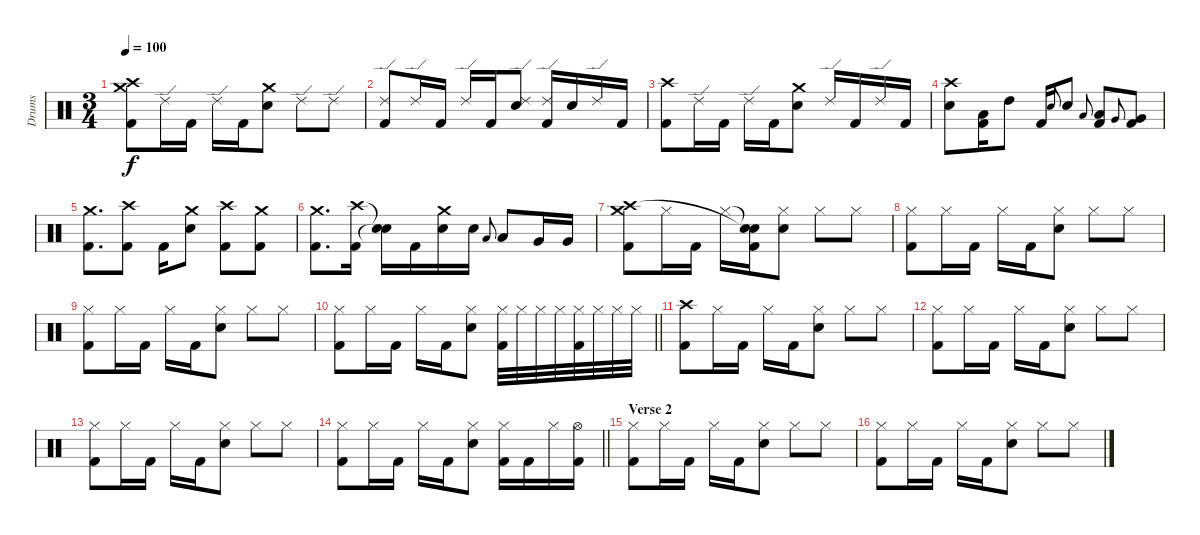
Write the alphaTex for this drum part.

\track ("Drums" "Drums") {instrument percussion}
\staff {score}
\articulation defaults
\ts (3 4)
\tempo 100
\clef neutral
\ks c
("Crash high (hit)" "Crash medium (hit)" "Kick (hit) 2").8{dy f} "Ride (edge) 2".16 "Kick (hit) 2".16 "Ride (edge) 2".16 "Kick (hit) 2".16 ("Crash medium (hit)" "Electric Snare (hit)").8 "Ride (edge) 2".8 "Ride (edge) 2".8 |
("Ride (edge) 2" "Kick (hit) 2").8 "Ride (edge) 2".16 "Kick (hit) 2".16 "Ride (edge) 2".16 "Kick (hit) 2".16 ("Ride (edge) 2" "Electric Snare (hit)").8 ("Ride (edge) 2" "Kick (hit) 2").16 "Electric Snare (hit)".16 "Ride (edge) 2".16 "Kick (hit) 2".16 |
("Crash high (hit)" "Kick (hit) 2").8 "Ride (edge) 2".16 "Kick (hit) 2".16 "Ride (edge) 2".16 "Kick (hit) 2".16 ("Crash medium (hit)" "Electric Snare (hit)").8 "Ride (edge) 2".16 "Kick (hit) 2".16 "Ride (edge) 2".16 "Kick (hit) 2".16 |
("Crash high (hit)" "Electric Snare (hit)").8 ("Low Tom (hit)" "Kick (hit) 2").16 "High Tom (hit)".8 "Kick (hit) 2".16 "Electric Snare (hit)".8{gr onbeat} "Electric Snare (hit)".8 "Low Tom (hit)".8{gr onbeat} ("Low Tom (hit)" "Kick (hit) 2").8 "Very Low Tom (hit)".8{gr onbeat} ("Very Low Tom (hit)" "Kick (hit) 2").8 |
("Crash medium (hit)" "Kick (hit) 2").8{d} ("Crash high (hit)" "Kick (hit) 2").8 "Kick (hit) 2".16 ("Crash medium (hit)" "Electric Snare (hit)").8 ("Crash high (hit)" "Kick (hit) 2").8 ("Crash medium (hit)" "Kick (hit) 2").8 |
("Crash medium (hit)" "Kick (hit) 2").8{d} ("Crash high (hit)" "Kick (hit) 2").16 ("Snare (hit)"{t} "Snare (hit)"{t}).16 "Kick (hit) 2".16 ("Crash medium (hit)" "Electric Snare (hit)").16 "Electric Snare (hit)".16 "Low Tom (hit)".8{gr onbeat} "Low Tom (hit)".8 "Very Low Tom (hit)".16 "Very Low Tom (hit)".16 |
("Crash medium (hit)" "Crash high (hit)" "Kick (hit) 2").8 "Hi-Hat (closed)".16 "Kick (hit) 2".16 "Hi-Hat (closed)".16 ("Snare (hit)"{t} "Snare (hit)"{t} "Kick (hit) 2").16 ("Hi-Hat (closed)" "Electric Snare (hit)").8 "Hi-Hat (closed)".8 "Hi-Hat (closed)".8 |
("Hi-Hat (closed)" "Kick (hit) 2").8 "Hi-Hat (closed)".16 "Kick (hit) 2".16 "Hi-Hat (closed)".16 "Kick (hit) 2".16 ("Hi-Hat (closed)" "Electric Snare (hit)").8 "Hi-Hat (closed)".8 "Hi-Hat (closed)".8 |
("Hi-Hat (closed)" "Kick (hit) 2").8 "Hi-Hat (closed)".16 "Kick (hit) 2".16 "Hi-Hat (closed)".16 "Kick (hit) 2".16 ("Hi-Hat (closed)" "Electric Snare (hit)").8 "Hi-Hat (closed)".8 "Hi-Hat (closed)".8 |
\barLineRight lightlight
("Hi-Hat (closed)" "Kick (hit) 2").8 "Hi-Hat (closed)".16 "Kick (hit) 2".16 "Hi-Hat (closed)".16 "Kick (hit) 2".16 ("Hi-Hat (closed)" "Electric Snare (hit)").8 ("Hi-Hat (closed)" "Kick (hit) 2").32 "Hi-Hat (closed)".32 "Hi-Hat (closed)".32 "Hi-Hat (closed)".32 ("Hi-Hat (closed)" "Kick (hit) 2").32 "Hi-Hat (closed)".32 "Hi-Hat (closed)".32 "Hi-Hat (closed)".32 |
("Crash high (hit)" "Kick (hit) 2").8 "Hi-Hat (closed)".16 "Kick (hit) 2".16 "Hi-Hat (closed)".16 "Kick (hit) 2".16 ("Hi-Hat (closed)" "Electric Snare (hit)").8 "Hi-Hat (closed)".8 "Hi-Hat (closed)".8 |
("Hi-Hat (closed)" "Kick (hit) 2").8 "Hi-Hat (closed)".16 "Kick (hit) 2".16 "Hi-Hat (closed)".16 "Kick (hit) 2".16 ("Hi-Hat (closed)" "Electric Snare (hit)").8 "Hi-Hat (closed)".8 "Hi-Hat (closed)".8 |
("Hi-Hat (closed)" "Kick (hit) 2").8 "Hi-Hat (closed)".16 "Kick (hit) 2".16 "Hi-Hat (closed)".16 "Kick (hit) 2".16 ("Hi-Hat (closed)" "Electric Snare (hit)").8 "Hi-Hat (closed)".8 "Hi-Hat (closed)".8 |
\barLineRight lightlight
("Hi-Hat (closed)" "Kick (hit) 2").8 "Hi-Hat (closed)".16 "Kick (hit) 2".16 "Hi-Hat (closed)".16 "Kick (hit) 2".16 ("Hi-Hat (closed)" "Electric Snare (hit)").8 ("Hi-Hat (closed)" "Kick (hit) 2").16 "Kick (hit) 2".16 "Hi-Hat (closed)".16 ("Hi-Hat (open)" "Kick (hit) 2").16 |
\section ("" "Verse 2")
("Hi-Hat (closed)" "Kick (hit) 2").8 "Hi-Hat (closed)".16 "Kick (hit) 2".16 "Hi-Hat (closed)".16 "Kick (hit) 2".16 ("Hi-Hat (closed)" "Electric Snare (hit)").8 "Hi-Hat (closed)".8 "Hi-Hat (closed)".8 |
("Hi-Hat (closed)" "Kick (hit) 2").8 "Hi-Hat (closed)".16 "Kick (hit) 2".16 "Hi-Hat (closed)".16 "Kick (hit) 2".16 ("Hi-Hat (closed)" "Electric Snare (hit)").8 "Hi-Hat (closed)".8 "Hi-Hat (closed)".8
